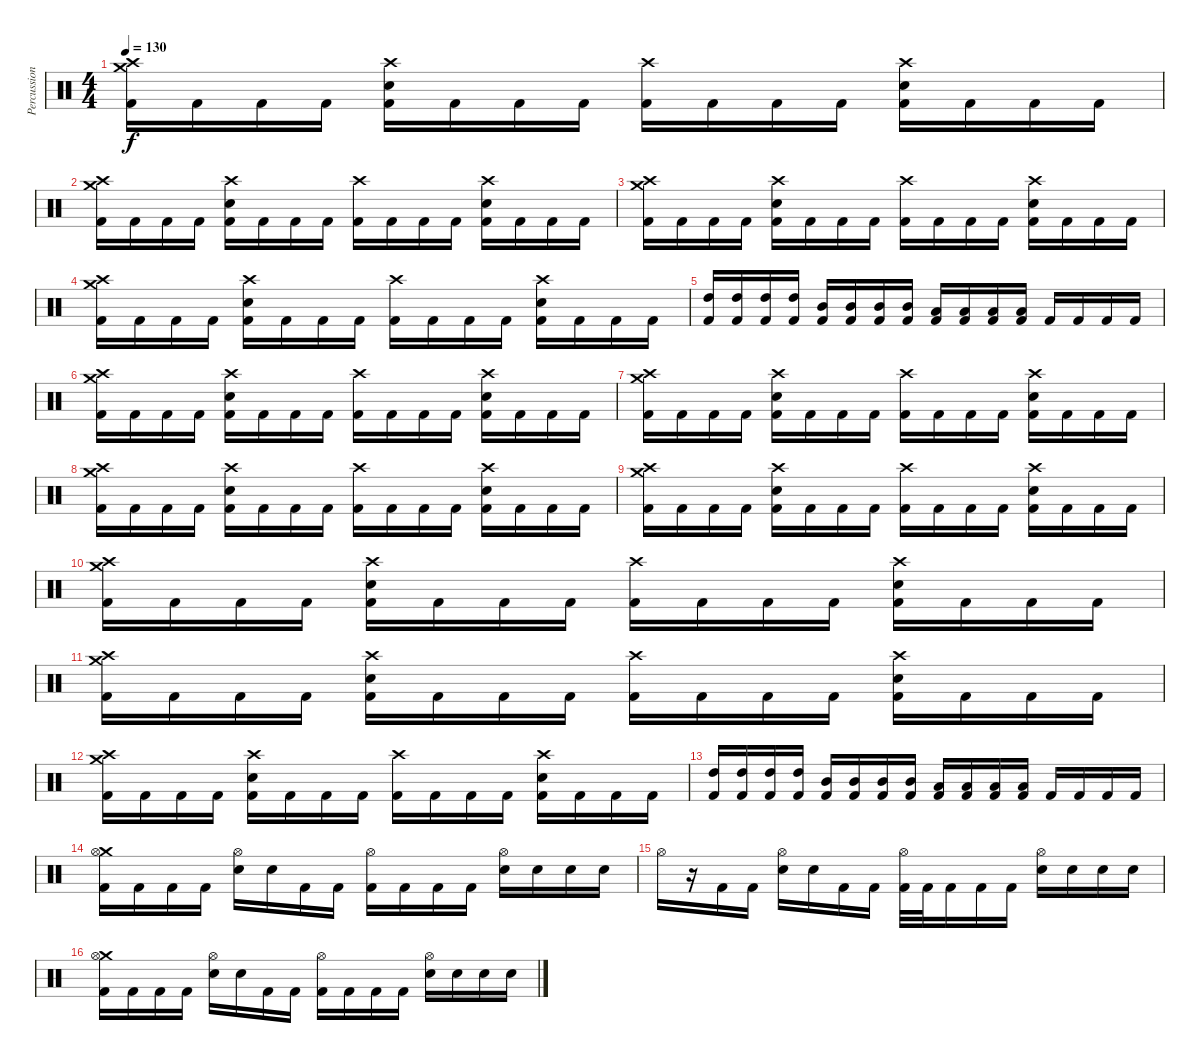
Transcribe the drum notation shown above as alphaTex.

\track ("Percussion" "Percussion") {instrument percussion}
\staff {score}
\articulation defaults
\ts (4 4)
\tempo 130
\clef neutral
\ks c
("Crash high (hit)" "Crash medium (hit)" "Kick (hit) 2").16{dy f} "Kick (hit) 2".16 "Kick (hit) 2".16 "Kick (hit) 2".16 ("Crash high (hit)" "Snare (hit) 2" "Kick (hit) 2").16 "Kick (hit) 2".16 "Kick (hit) 2".16 "Kick (hit) 2".16 ("Crash high (hit)" "Kick (hit) 2").16 "Kick (hit) 2".16 "Kick (hit) 2".16 "Kick (hit) 2".16 ("Crash high (hit)" "Snare (hit) 2" "Kick (hit) 2").16 "Kick (hit) 2".16 "Kick (hit) 2".16 "Kick (hit) 2".16 |
("Crash medium (hit)" "Crash high (hit)" "Kick (hit) 2").16 "Kick (hit) 2".16 "Kick (hit) 2".16 "Kick (hit) 2".16 ("Crash high (hit)" "Snare (hit) 2" "Kick (hit) 2").16 "Kick (hit) 2".16 "Kick (hit) 2".16 "Kick (hit) 2".16 ("Crash high (hit)" "Kick (hit) 2").16 "Kick (hit) 2".16 "Kick (hit) 2".16 "Kick (hit) 2".16 ("Crash high (hit)" "Snare (hit) 2" "Kick (hit) 2").16 "Kick (hit) 2".16 "Kick (hit) 2".16 "Kick (hit) 2".16 |
("Crash high (hit)" "Crash medium (hit)" "Kick (hit) 2").16 "Kick (hit) 2".16 "Kick (hit) 2".16 "Kick (hit) 2".16 ("Crash high (hit)" "Snare (hit) 2" "Kick (hit) 2").16 "Kick (hit) 2".16 "Kick (hit) 2".16 "Kick (hit) 2".16 ("Crash high (hit)" "Kick (hit) 2").16 "Kick (hit) 2".16 "Kick (hit) 2".16 "Kick (hit) 2".16 ("Crash high (hit)" "Snare (hit) 2" "Kick (hit) 2").16 "Kick (hit) 2".16 "Kick (hit) 2".16 "Kick (hit) 2".16 |
("Crash high (hit)" "Crash medium (hit)" "Kick (hit) 2").16 "Kick (hit) 2".16 "Kick (hit) 2".16 "Kick (hit) 2".16 ("Crash high (hit)" "Snare (hit) 2" "Kick (hit) 2").16 "Kick (hit) 2".16 "Kick (hit) 2".16 "Kick (hit) 2".16 ("Crash high (hit)" "Kick (hit) 2").16 "Kick (hit) 2".16 "Kick (hit) 2".16 "Kick (hit) 2".16 ("Crash high (hit)" "Snare (hit) 2" "Kick (hit) 2").16 "Kick (hit) 2".16 "Kick (hit) 2".16 "Kick (hit) 2".16 |
("High Tom (hit)" "Kick (hit) 2").16 ("High Tom (hit)" "Kick (hit) 2").16 ("High Tom (hit)" "Kick (hit) 2").16 ("High Tom (hit)" "Kick (hit) 2").16 ("Mid Tom (hit)" "Kick (hit) 2").16 ("Mid Tom (hit)" "Kick (hit) 2").16 ("Mid Tom (hit)" "Kick (hit) 2").16 ("Mid Tom (hit)" "Kick (hit) 2").16 ("Low Tom (hit)" "Kick (hit) 2").16 ("Low Tom (hit)" "Kick (hit) 2").16 ("Low Tom (hit)" "Kick (hit) 2").16 ("Low Tom (hit)" "Kick (hit) 2").16 "Kick (hit) 2".16 "Kick (hit) 2".16 "Kick (hit) 2".16 "Kick (hit) 2".16 |
("Crash medium (hit)" "Crash high (hit)" "Kick (hit) 2").16 "Kick (hit) 2".16 "Kick (hit) 2".16 "Kick (hit) 2".16 ("Crash high (hit)" "Snare (hit) 2" "Kick (hit) 2").16 "Kick (hit) 2".16 "Kick (hit) 2".16 "Kick (hit) 2".16 ("Crash high (hit)" "Kick (hit) 2").16 "Kick (hit) 2".16 "Kick (hit) 2".16 "Kick (hit) 2".16 ("Crash high (hit)" "Snare (hit) 2" "Kick (hit) 2").16 "Kick (hit) 2".16 "Kick (hit) 2".16 "Kick (hit) 2".16 |
("Crash high (hit)" "Crash medium (hit)" "Kick (hit) 2").16 "Kick (hit) 2".16 "Kick (hit) 2".16 "Kick (hit) 2".16 ("Crash high (hit)" "Snare (hit) 2" "Kick (hit) 2").16 "Kick (hit) 2".16 "Kick (hit) 2".16 "Kick (hit) 2".16 ("Crash high (hit)" "Kick (hit) 2").16 "Kick (hit) 2".16 "Kick (hit) 2".16 "Kick (hit) 2".16 ("Crash high (hit)" "Snare (hit) 2" "Kick (hit) 2").16 "Kick (hit) 2".16 "Kick (hit) 2".16 "Kick (hit) 2".16 |
("Crash medium (hit)" "Crash high (hit)" "Kick (hit) 2").16 "Kick (hit) 2".16 "Kick (hit) 2".16 "Kick (hit) 2".16 ("Crash high (hit)" "Snare (hit) 2" "Kick (hit) 2").16 "Kick (hit) 2".16 "Kick (hit) 2".16 "Kick (hit) 2".16 ("Crash high (hit)" "Kick (hit) 2").16 "Kick (hit) 2".16 "Kick (hit) 2".16 "Kick (hit) 2".16 ("Crash high (hit)" "Snare (hit) 2" "Kick (hit) 2").16 "Kick (hit) 2".16 "Kick (hit) 2".16 "Kick (hit) 2".16 |
("Crash high (hit)" "Crash medium (hit)" "Kick (hit) 2").16 "Kick (hit) 2".16 "Kick (hit) 2".16 "Kick (hit) 2".16 ("Crash high (hit)" "Snare (hit) 2" "Kick (hit) 2").16 "Kick (hit) 2".16 "Kick (hit) 2".16 "Kick (hit) 2".16 ("Crash high (hit)" "Kick (hit) 2").16 "Kick (hit) 2".16 "Kick (hit) 2".16 "Kick (hit) 2".16 ("Crash high (hit)" "Snare (hit) 2" "Kick (hit) 2").16 "Kick (hit) 2".16 "Kick (hit) 2".16 "Kick (hit) 2".16 |
("Crash medium (hit)" "Crash high (hit)" "Kick (hit) 2").16 "Kick (hit) 2".16 "Kick (hit) 2".16 "Kick (hit) 2".16 ("Crash high (hit)" "Snare (hit) 2" "Kick (hit) 2").16 "Kick (hit) 2".16 "Kick (hit) 2".16 "Kick (hit) 2".16 ("Crash high (hit)" "Kick (hit) 2").16 "Kick (hit) 2".16 "Kick (hit) 2".16 "Kick (hit) 2".16 ("Crash high (hit)" "Snare (hit) 2" "Kick (hit) 2").16 "Kick (hit) 2".16 "Kick (hit) 2".16 "Kick (hit) 2".16 |
("Crash high (hit)" "Crash medium (hit)" "Kick (hit) 2").16 "Kick (hit) 2".16 "Kick (hit) 2".16 "Kick (hit) 2".16 ("Crash high (hit)" "Snare (hit) 2" "Kick (hit) 2").16 "Kick (hit) 2".16 "Kick (hit) 2".16 "Kick (hit) 2".16 ("Crash high (hit)" "Kick (hit) 2").16 "Kick (hit) 2".16 "Kick (hit) 2".16 "Kick (hit) 2".16 ("Crash high (hit)" "Snare (hit) 2" "Kick (hit) 2").16 "Kick (hit) 2".16 "Kick (hit) 2".16 "Kick (hit) 2".16 |
("Crash high (hit)" "Crash medium (hit)" "Kick (hit) 2").16 "Kick (hit) 2".16 "Kick (hit) 2".16 "Kick (hit) 2".16 ("Crash high (hit)" "Snare (hit) 2" "Kick (hit) 2").16 "Kick (hit) 2".16 "Kick (hit) 2".16 "Kick (hit) 2".16 ("Crash high (hit)" "Kick (hit) 2").16 "Kick (hit) 2".16 "Kick (hit) 2".16 "Kick (hit) 2".16 ("Crash high (hit)" "Snare (hit) 2" "Kick (hit) 2").16 "Kick (hit) 2".16 "Kick (hit) 2".16 "Kick (hit) 2".16 |
("High Tom (hit)" "Kick (hit) 2").16 ("High Tom (hit)" "Kick (hit) 2").16 ("High Tom (hit)" "Kick (hit) 2").16 ("High Tom (hit)" "Kick (hit) 2").16 ("Mid Tom (hit)" "Kick (hit) 2").16 ("Mid Tom (hit)" "Kick (hit) 2").16 ("Mid Tom (hit)" "Kick (hit) 2").16 ("Mid Tom (hit)" "Kick (hit) 2").16 ("Low Tom (hit)" "Kick (hit) 2").16 ("Low Tom (hit)" "Kick (hit) 2").16 ("Low Tom (hit)" "Kick (hit) 2").16 ("Low Tom (hit)" "Kick (hit) 2").16 "Kick (hit) 2".16 "Kick (hit) 2".16 "Kick (hit) 2".16 "Kick (hit) 2".16 |
("Crash medium (hit)" "Hi-Hat (open)" "Kick (hit) 2").16 "Kick (hit) 2".16 "Kick (hit) 2".16 "Kick (hit) 2".16 ("Hi-Hat (open)" "Snare (hit) 2").16 "Snare (hit)".16 "Kick (hit) 2".16 "Kick (hit) 2".16 ("Hi-Hat (open)" "Kick (hit) 2").16 "Kick (hit) 2".16 "Kick (hit) 2".16 "Kick (hit) 2".16 ("Hi-Hat (open)" "Snare (hit) 2").16 "Snare (hit)".16 "Snare (hit)".16 "Snare (hit)".16 |
"Hi-Hat (open)".16 r.16 "Kick (hit) 2".16 "Kick (hit) 2".16 ("Hi-Hat (open)" "Snare (hit) 2").16 "Snare (hit)".16 "Kick (hit) 2".16 "Kick (hit) 2".16 ("Hi-Hat (open)" "Kick (hit) 2").32 "Kick (hit) 2".32 "Kick (hit) 2".16 "Kick (hit) 2".16 "Kick (hit) 2".16 ("Hi-Hat (open)" "Snare (hit) 2").16 "Snare (hit)".16 "Snare (hit)".16 "Snare (hit)".16 |
("Crash medium (hit)" "Hi-Hat (open)" "Kick (hit) 2").16 "Kick (hit) 2".16 "Kick (hit) 2".16 "Kick (hit) 2".16 ("Hi-Hat (open)" "Snare (hit) 2").16 "Snare (hit)".16 "Kick (hit) 2".16 "Kick (hit) 2".16 ("Hi-Hat (open)" "Kick (hit) 2").16 "Kick (hit) 2".16 "Kick (hit) 2".16 "Kick (hit) 2".16 ("Hi-Hat (open)" "Snare (hit) 2").16 "Snare (hit)".16 "Snare (hit)".16 "Snare (hit)".16
